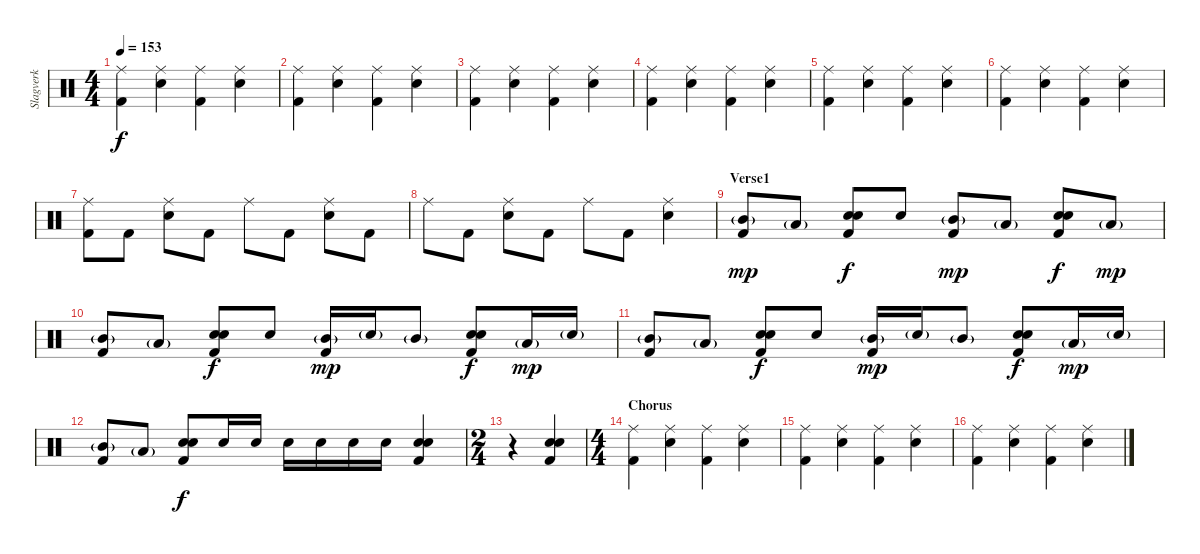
\track ("Slagverk" "Slagverk") {instrument percussion}
\staff {score}
\articulation defaults
\ts (4 4)
\tempo 153
\clef neutral
\ks c
("Ride (middle)" "Kick (hit) 2").4{dy f} ("Ride (middle)" "Electric Snare (hit)").4 ("Ride (middle)" "Kick (hit) 2").4 ("Ride (middle)" "Electric Snare (hit)").4 |
("Ride (middle)" "Kick (hit) 2").4 ("Ride (middle)" "Electric Snare (hit)").4 ("Ride (middle)" "Kick (hit) 2").4 ("Ride (middle)" "Electric Snare (hit)").4 |
("Ride (middle)" "Kick (hit) 2").4 ("Ride (middle)" "Electric Snare (hit)").4 ("Ride (middle)" "Kick (hit) 2").4 ("Ride (middle)" "Electric Snare (hit)").4 |
("Ride (middle)" "Kick (hit) 2").4 ("Ride (middle)" "Electric Snare (hit)").4 ("Ride (middle)" "Kick (hit) 2").4 ("Ride (middle)" "Electric Snare (hit)").4 |
("Ride (middle)" "Kick (hit) 2").4 ("Ride (middle)" "Electric Snare (hit)").4 ("Ride (middle)" "Kick (hit) 2").4 ("Ride (middle)" "Electric Snare (hit)").4 |
("Ride (middle)" "Kick (hit) 2").4 ("Ride (middle)" "Electric Snare (hit)").4 ("Ride (middle)" "Kick (hit) 2").4 ("Ride (middle)" "Electric Snare (hit)").4 |
("Ride (middle)" "Kick (hit) 2").8 "Kick (hit) 2".8 ("Ride (middle)" "Electric Snare (hit)").8 "Kick (hit) 2".8 "Ride (middle)".8 "Kick (hit) 2".8 ("Ride (middle)" "Electric Snare (hit)").8 "Kick (hit) 2".8 |
"Ride (middle)".8 "Kick (hit) 2".8 ("Ride (middle)" "Electric Snare (hit)").8 "Kick (hit) 2".8 "Ride (middle)".8 "Kick (hit) 2".8 ("Ride (middle)" "Electric Snare (hit)").4 |
\section ("" "Verse1")
("Mid Tom (hit)"{g} "Kick (hit) 2").8{dy mp} "Low Tom (hit)"{g}.8 ("Hand Clap (hit)" "Electric Snare (hit)" "Kick (hit) 2").8{dy f} "Electric Snare (hit)".8 ("Mid Tom (hit)"{g} "Kick (hit) 2").8{dy mp} "Low Tom (hit)"{g}.8 ("Hand Clap (hit)" "Electric Snare (hit)" "Kick (hit) 2").8{dy f} "Low Tom (hit)"{g}.8{dy mp} |
("Mid Tom (hit)"{g} "Kick (hit) 2").8 "Low Tom (hit)"{g}.8 ("Hand Clap (hit)" "Electric Snare (hit)" "Kick (hit) 2").8{dy f} "Electric Snare (hit)".8 ("Mid Tom (hit)"{g} "Kick (hit) 2").16{dy mp} "Electric Snare (hit)"{g}.16 "Mid Tom (hit)"{g}.8 ("Hand Clap (hit)" "Electric Snare (hit)" "Kick (hit) 2").8{dy f} "Low Tom (hit)"{g}.16{dy mp} "Electric Snare (hit)"{g}.16 |
("Mid Tom (hit)"{g} "Kick (hit) 2").8 "Low Tom (hit)"{g}.8 ("Hand Clap (hit)" "Electric Snare (hit)" "Kick (hit) 2").8{dy f} "Electric Snare (hit)".8 ("Mid Tom (hit)"{g} "Kick (hit) 2").16{dy mp} "Electric Snare (hit)"{g}.16 "Mid Tom (hit)"{g}.8 ("Hand Clap (hit)" "Electric Snare (hit)" "Kick (hit) 2").8{dy f} "Low Tom (hit)"{g}.16{dy mp} "Electric Snare (hit)"{g}.16 |
("Mid Tom (hit)"{g} "Kick (hit) 2").8 "Low Tom (hit)"{g}.8 ("Hand Clap (hit)" "Electric Snare (hit)" "Kick (hit) 2").8{dy f} "Electric Snare (hit)".16 "Electric Snare (hit)".16 "Electric Snare (hit)".16 "Electric Snare (hit)".16 "Electric Snare (hit)".16 "Electric Snare (hit)".16 ("Hand Clap (hit)" "Electric Snare (hit)" "Kick (hit) 2").4 |
\ts (2 4)
r.4 ("Hand Clap (hit)" "Electric Snare (hit)" "Kick (hit) 2").4 |
\ts (4 4)
\section ("" "Chorus")
("Ride (middle)" "Kick (hit) 2").4 ("Ride (middle)" "Electric Snare (hit)").4 ("Ride (middle)" "Kick (hit) 2").4 ("Ride (middle)" "Electric Snare (hit)").4 |
("Ride (middle)" "Kick (hit) 2").4 ("Ride (middle)" "Electric Snare (hit)").4 ("Ride (middle)" "Kick (hit) 2").4 ("Ride (middle)" "Electric Snare (hit)").4 |
("Ride (middle)" "Kick (hit) 2").4 ("Ride (middle)" "Electric Snare (hit)").4 ("Ride (middle)" "Kick (hit) 2").4 ("Ride (middle)" "Electric Snare (hit)").4
